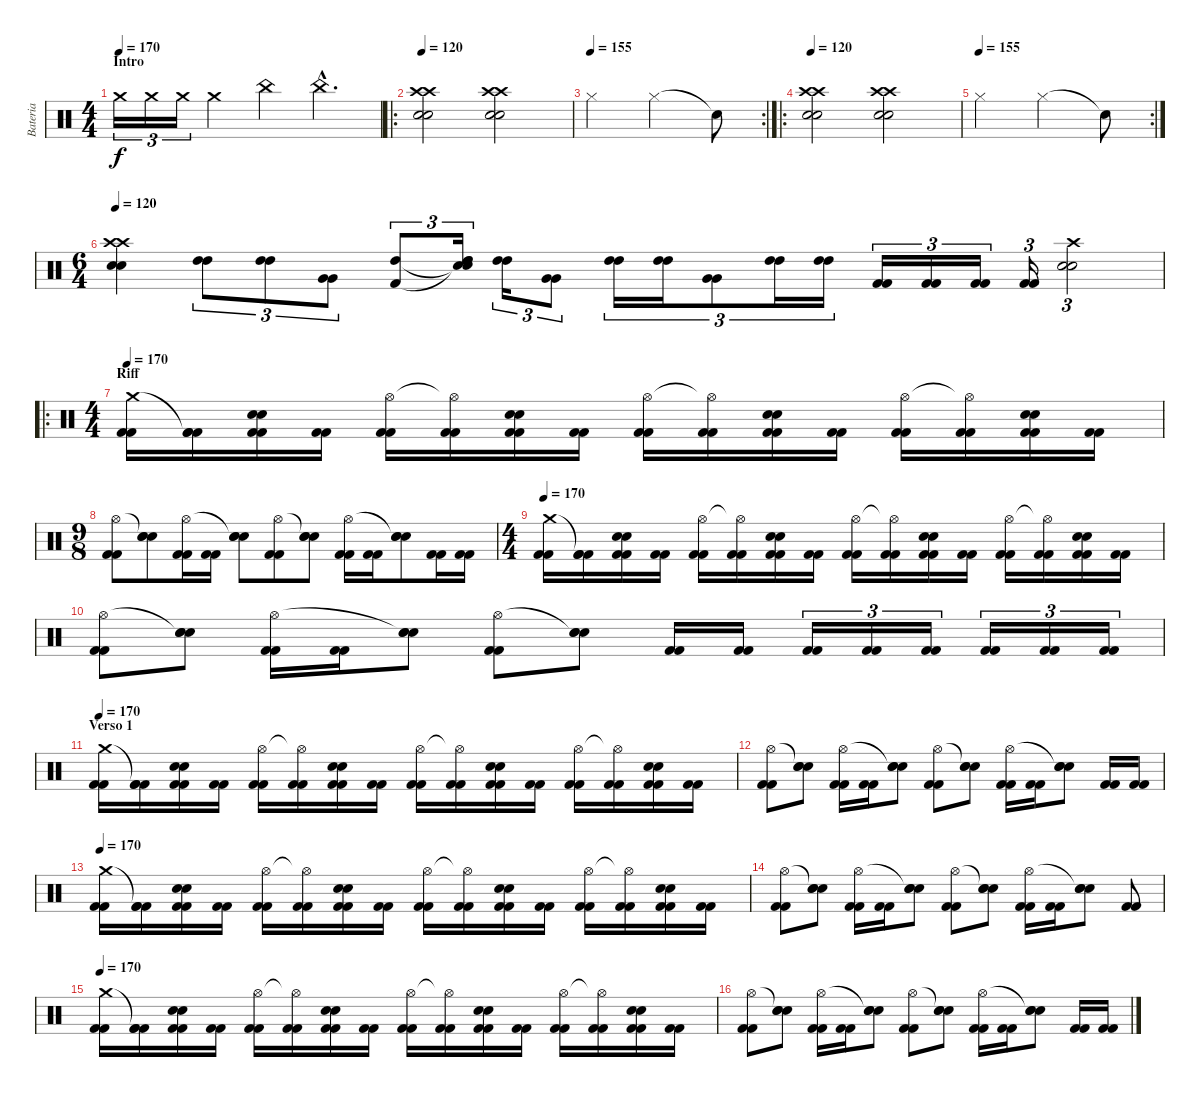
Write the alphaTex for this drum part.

\track ("Bateria" "Bateria") {instrument percussion}
\staff {score}
\articulation defaults
\ts (4 4)
\section ("" "Intro")
\tempo 170
\tempo 120
\tempo 170
\clef neutral
\ks c "Crash medium (hit)".16{tu (3 2) dy f} "Crash medium (hit)".16{tu (3 2)} "Crash medium (hit)".16{tu (3 2)} "Crash medium (hit)".4 "China (hit)".4 "China (hit)"{hac}.4{d}
|
\ro
\tempo 120
("Crash high (hit)" "Crash high (hit)" "Snare (hit) 2" "Snare (hit) 2").2 ("Crash high (hit)" "Crash high (hit)" "Snare (hit) 2" "Snare (hit) 2").2 |
\rc 2
\tempo (155)
"Hi-Hat (closed)".2 "Hi-Hat (closed)".2 "Snare (hit)"{t}.8 |
\ro
\tempo 120
("Crash high (hit)" "Crash high (hit)" "Snare (hit) 2" "Snare (hit) 2").2 ("Crash high (hit)" "Crash high (hit)" "Snare (hit) 2" "Snare (hit) 2").2 |
\rc 2
\tempo (155)
"Hi-Hat (closed)".2 "Hi-Hat (closed)".2 "Snare (hit)"{t}.8 |
\ts (6 4)
\tempo 120
("Crash high (hit)" "Crash high (hit)" "Snare (hit) 2" "Snare (hit) 2").4 ("High Tom (hit)" "High Tom (hit)").8{tu (3 2)} ("High Tom (hit)" "High Tom (hit)").8{tu (3 2)} ("Very Low Tom (hit)" "Very Low Tom (hit)").8{tu (3 2)} ("Kick (hit) 2" "High Tom (hit)").8{tu (3 2)} ("Snare (hit)"{t} "Snare (hit)"{t} "High Tom (hit)" "High Tom (hit)").16{tu (3 2)} ("High Tom (hit)" "High Tom (hit)").16{tu (3 2)} ("Very Low Tom (hit)" "Very Low Tom (hit)").8{tu (3 2)} ("High Tom (hit)" "High Tom (hit)").16{tu (3 2)} ("High Tom (hit)" "High Tom (hit)").16{tu (3 2)} ("Very Low Tom (hit)" "Very Low Tom (hit)").8{tu (3 2)} ("High Tom (hit)" "High Tom (hit)").16{tu (3 2)} ("High Tom (hit)" "High Tom (hit)").16{tu (3 2)} ("Kick (hit) 2" "Kick (hit) 2").16{tu (3 2)} ("Kick (hit) 2" "Kick (hit) 2").16{tu (3 2)} ("Kick (hit) 2" "Kick (hit) 2").16{tu (3 2)} ("Kick (hit) 2" "Kick (hit) 2").16{tu (3 2)} ("Crash high (hit)" "Snare (hit) 2" "Snare (hit) 2").2{tu (3 2)} |
\ro
\ts (4 4)
\section ("" "Riff")
\tempo 170
("Kick (hit) 2" "Kick (hit) 2" "Crash medium (hit)").16 ("Kick (hit) 2" "Kick (hit) 2" "Kick (hit) 2"{t}).16 ("Kick (hit) 2" "Kick (hit) 2" "Electric Snare (hit)" "Electric Snare (hit)").16 ("Kick (hit) 2" "Kick (hit) 2").16 ("Kick (hit) 2" "Kick (hit) 2" "Hi-Hat (open)").16 ("Kick (hit) 2" "Kick (hit) 2" "Hi-Hat (open)"{t}).16 ("Kick (hit) 2" "Kick (hit) 2" "Electric Snare (hit)" "Electric Snare (hit)").16 ("Kick (hit) 2" "Kick (hit) 2").16 ("Kick (hit) 2" "Kick (hit) 2" "Hi-Hat (open)").16 ("Kick (hit) 2" "Kick (hit) 2" "Hi-Hat (open)"{t}).16 ("Kick (hit) 2" "Kick (hit) 2" "Electric Snare (hit)" "Electric Snare (hit)").16 ("Kick (hit) 2" "Kick (hit) 2").16 ("Kick (hit) 2" "Kick (hit) 2" "Hi-Hat (open)").16 ("Kick (hit) 2" "Kick (hit) 2" "Hi-Hat (open)"{t}).16 ("Kick (hit) 2" "Kick (hit) 2" "Electric Snare (hit)" "Electric Snare (hit)").16 ("Kick (hit) 2" "Kick (hit) 2").16 |
\ts (9 8)
("Kick (hit) 2" "Kick (hit) 2" "Hi-Hat (open)").8 ("Electric Snare (hit)" "Electric Snare (hit)" "Snare (hit)"{t}).8 ("Kick (hit) 2" "Kick (hit) 2" "Hi-Hat (open)").16 ("Kick (hit) 2" "Kick (hit) 2").16 ("Electric Snare (hit)" "Electric Snare (hit)" "Snare (hit)"{t}).8 ("Kick (hit) 2" "Kick (hit) 2" "Hi-Hat (open)").8 ("Electric Snare (hit)" "Electric Snare (hit)" "Snare (hit)"{t}).8 ("Kick (hit) 2" "Kick (hit) 2" "Hi-Hat (open)").16 ("Kick (hit) 2" "Kick (hit) 2").16 ("Electric Snare (hit)" "Electric Snare (hit)" "Snare (hit)"{t}).8 ("Kick (hit) 2" "Kick (hit) 2").16 ("Kick (hit) 2" "Kick (hit) 2").16 |
\ts (4 4)
\tempo 170
("Kick (hit) 2" "Kick (hit) 2" "Crash medium (hit)").16 ("Kick (hit) 2" "Kick (hit) 2" "Kick (hit) 2"{t}).16 ("Kick (hit) 2" "Kick (hit) 2" "Electric Snare (hit)" "Electric Snare (hit)").16 ("Kick (hit) 2" "Kick (hit) 2").16 ("Kick (hit) 2" "Kick (hit) 2" "Hi-Hat (open)").16 ("Kick (hit) 2" "Kick (hit) 2" "Hi-Hat (open)"{t}).16 ("Kick (hit) 2" "Kick (hit) 2" "Electric Snare (hit)" "Electric Snare (hit)").16 ("Kick (hit) 2" "Kick (hit) 2").16 ("Kick (hit) 2" "Kick (hit) 2" "Hi-Hat (open)").16 ("Kick (hit) 2" "Kick (hit) 2" "Hi-Hat (open)"{t}).16 ("Kick (hit) 2" "Kick (hit) 2" "Electric Snare (hit)" "Electric Snare (hit)").16 ("Kick (hit) 2" "Kick (hit) 2").16 ("Kick (hit) 2" "Kick (hit) 2" "Hi-Hat (open)").16 ("Kick (hit) 2" "Kick (hit) 2" "Hi-Hat (open)"{t}).16 ("Kick (hit) 2" "Kick (hit) 2" "Electric Snare (hit)" "Electric Snare (hit)").16 ("Kick (hit) 2" "Kick (hit) 2").16 |
("Kick (hit) 2" "Kick (hit) 2" "Hi-Hat (open)").8 ("Electric Snare (hit)" "Electric Snare (hit)" "Snare (hit)"{t}).8 ("Kick (hit) 2" "Kick (hit) 2" "Hi-Hat (open)").16 ("Kick (hit) 2" "Kick (hit) 2").16 ("Electric Snare (hit)" "Electric Snare (hit)" "Snare (hit)"{t}).8 ("Kick (hit) 2" "Kick (hit) 2" "Hi-Hat (open)").8 ("Electric Snare (hit)" "Electric Snare (hit)" "Snare (hit)"{t}).8 ("Kick (hit) 2" "Kick (hit) 2").16 ("Kick (hit) 2" "Kick (hit) 2").16 ("Kick (hit) 2" "Kick (hit) 2").16{tu (3 2)} ("Kick (hit) 2" "Kick (hit) 2").16{tu (3 2)} ("Kick (hit) 2" "Kick (hit) 2").16{tu (3 2)} ("Kick (hit) 2" "Kick (hit) 2").16{tu (3 2)} ("Kick (hit) 2" "Kick (hit) 2").16{tu (3 2)} ("Kick (hit) 2" "Kick (hit) 2").16{tu (3 2)} |
\section ("" "Verso 1")
\tempo 170
("Kick (hit) 2" "Kick (hit) 2" "Crash medium (hit)").16 ("Kick (hit) 2" "Kick (hit) 2" "Kick (hit) 2"{t}).16 ("Kick (hit) 2" "Kick (hit) 2" "Electric Snare (hit)" "Electric Snare (hit)").16 ("Kick (hit) 2" "Kick (hit) 2").16 ("Kick (hit) 2" "Kick (hit) 2" "Hi-Hat (open)").16 ("Kick (hit) 2" "Kick (hit) 2" "Hi-Hat (open)"{t}).16 ("Kick (hit) 2" "Kick (hit) 2" "Electric Snare (hit)" "Electric Snare (hit)").16 ("Kick (hit) 2" "Kick (hit) 2").16 ("Kick (hit) 2" "Kick (hit) 2" "Hi-Hat (open)").16 ("Kick (hit) 2" "Kick (hit) 2" "Hi-Hat (open)"{t}).16 ("Kick (hit) 2" "Kick (hit) 2" "Electric Snare (hit)" "Electric Snare (hit)").16 ("Kick (hit) 2" "Kick (hit) 2").16 ("Kick (hit) 2" "Kick (hit) 2" "Hi-Hat (open)").16 ("Kick (hit) 2" "Kick (hit) 2" "Hi-Hat (open)"{t}).16 ("Kick (hit) 2" "Kick (hit) 2" "Electric Snare (hit)" "Electric Snare (hit)").16 ("Kick (hit) 2" "Kick (hit) 2").16 |
("Kick (hit) 2" "Kick (hit) 2" "Hi-Hat (open)").8 ("Electric Snare (hit)" "Electric Snare (hit)" "Snare (hit)"{t}).8 ("Kick (hit) 2" "Kick (hit) 2" "Hi-Hat (open)").16 ("Kick (hit) 2" "Kick (hit) 2").16 ("Electric Snare (hit)" "Electric Snare (hit)" "Snare (hit)"{t}).8 ("Kick (hit) 2" "Kick (hit) 2" "Hi-Hat (open)").8 ("Electric Snare (hit)" "Electric Snare (hit)" "Snare (hit)"{t}).8 ("Kick (hit) 2" "Kick (hit) 2" "Hi-Hat (open)").16 ("Kick (hit) 2" "Kick (hit) 2").16 ("Electric Snare (hit)" "Electric Snare (hit)" "Snare (hit)"{t}).8 ("Kick (hit) 2" "Kick (hit) 2").16 ("Kick (hit) 2" "Kick (hit) 2").16 |
\tempo 170
("Kick (hit) 2" "Kick (hit) 2" "Crash medium (hit)").16 ("Kick (hit) 2" "Kick (hit) 2" "Kick (hit) 2"{t}).16 ("Kick (hit) 2" "Kick (hit) 2" "Electric Snare (hit)" "Electric Snare (hit)").16 ("Kick (hit) 2" "Kick (hit) 2").16 ("Kick (hit) 2" "Kick (hit) 2" "Hi-Hat (open)").16 ("Kick (hit) 2" "Kick (hit) 2" "Hi-Hat (open)"{t}).16 ("Kick (hit) 2" "Kick (hit) 2" "Electric Snare (hit)" "Electric Snare (hit)").16 ("Kick (hit) 2" "Kick (hit) 2").16 ("Kick (hit) 2" "Kick (hit) 2" "Hi-Hat (open)").16 ("Kick (hit) 2" "Kick (hit) 2" "Hi-Hat (open)"{t}).16 ("Kick (hit) 2" "Kick (hit) 2" "Electric Snare (hit)" "Electric Snare (hit)").16 ("Kick (hit) 2" "Kick (hit) 2").16 ("Kick (hit) 2" "Kick (hit) 2" "Hi-Hat (open)").16 ("Kick (hit) 2" "Kick (hit) 2" "Hi-Hat (open)"{t}).16 ("Kick (hit) 2" "Kick (hit) 2" "Electric Snare (hit)" "Electric Snare (hit)").16 ("Kick (hit) 2" "Kick (hit) 2").16 |
("Kick (hit) 2" "Kick (hit) 2" "Hi-Hat (open)").8 ("Electric Snare (hit)" "Electric Snare (hit)" "Snare (hit)"{t}).8 ("Kick (hit) 2" "Kick (hit) 2" "Hi-Hat (open)").16 ("Kick (hit) 2" "Kick (hit) 2").16 ("Electric Snare (hit)" "Electric Snare (hit)" "Snare (hit)"{t}).8 ("Kick (hit) 2" "Kick (hit) 2" "Hi-Hat (open)").8 ("Electric Snare (hit)" "Electric Snare (hit)" "Snare (hit)"{t}).8 ("Kick (hit) 2" "Kick (hit) 2" "Hi-Hat (open)").16 ("Kick (hit) 2" "Kick (hit) 2").16 ("Electric Snare (hit)" "Electric Snare (hit)" "Snare (hit)"{t}).8 ("Kick (hit) 2" "Kick (hit) 2").8 |
\tempo 170
("Kick (hit) 2" "Kick (hit) 2" "Crash medium (hit)").16 ("Kick (hit) 2" "Kick (hit) 2" "Kick (hit) 2"{t}).16 ("Kick (hit) 2" "Kick (hit) 2" "Electric Snare (hit)" "Electric Snare (hit)").16 ("Kick (hit) 2" "Kick (hit) 2").16 ("Kick (hit) 2" "Kick (hit) 2" "Hi-Hat (open)").16 ("Kick (hit) 2" "Kick (hit) 2" "Hi-Hat (open)"{t}).16 ("Kick (hit) 2" "Kick (hit) 2" "Electric Snare (hit)" "Electric Snare (hit)").16 ("Kick (hit) 2" "Kick (hit) 2").16 ("Kick (hit) 2" "Kick (hit) 2" "Hi-Hat (open)").16 ("Kick (hit) 2" "Kick (hit) 2" "Hi-Hat (open)"{t}).16 ("Kick (hit) 2" "Kick (hit) 2" "Electric Snare (hit)" "Electric Snare (hit)").16 ("Kick (hit) 2" "Kick (hit) 2").16 ("Kick (hit) 2" "Kick (hit) 2" "Hi-Hat (open)").16 ("Kick (hit) 2" "Kick (hit) 2" "Hi-Hat (open)"{t}).16 ("Kick (hit) 2" "Kick (hit) 2" "Electric Snare (hit)" "Electric Snare (hit)").16 ("Kick (hit) 2" "Kick (hit) 2").16 |
("Kick (hit) 2" "Kick (hit) 2" "Hi-Hat (open)").8 ("Electric Snare (hit)" "Electric Snare (hit)" "Snare (hit)"{t}).8 ("Kick (hit) 2" "Kick (hit) 2" "Hi-Hat (open)").16 ("Kick (hit) 2" "Kick (hit) 2").16 ("Electric Snare (hit)" "Electric Snare (hit)" "Snare (hit)"{t}).8 ("Kick (hit) 2" "Kick (hit) 2" "Hi-Hat (open)").8 ("Electric Snare (hit)" "Electric Snare (hit)" "Snare (hit)"{t}).8 ("Kick (hit) 2" "Kick (hit) 2" "Hi-Hat (open)").16 ("Kick (hit) 2" "Kick (hit) 2").16 ("Electric Snare (hit)" "Electric Snare (hit)" "Snare (hit)"{t}).8 ("Kick (hit) 2" "Kick (hit) 2").16 ("Kick (hit) 2" "Kick (hit) 2").16
